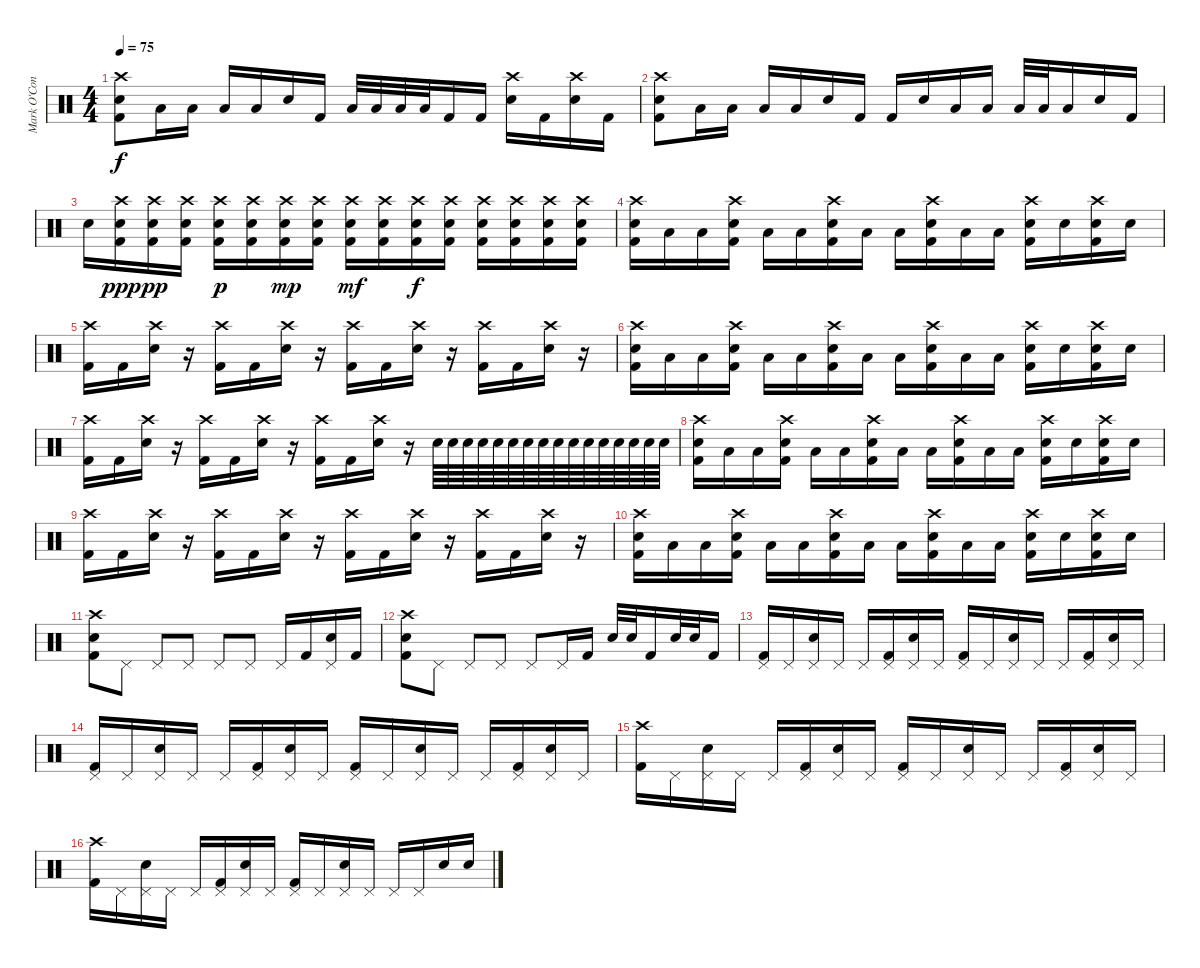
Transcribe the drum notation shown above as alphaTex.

\track ("Mark O'Connell (Drums)" "Mark O'Con") {instrument percussion}
\staff {score}
\articulation defaults
\ts (4 4)
\tempo 75
\clef neutral
\ks c
("Crash high (hit)" "Electric Snare (hit)" "Kick (hit) 2").8{dy f} "Low Tom (hit)".16 "Low Tom (hit)".16 "Low Tom (hit)".16 "Low Tom (hit)".16 "Electric Snare (hit)".16 "Kick (hit) 2".16 "Low Tom (hit)".32 "Low Tom (hit)".32 "Low Tom (hit)".32 "Low Tom (hit)".32 "Kick (hit) 2".16 "Kick (hit) 2".16 ("Crash high (hit)" "Electric Snare (hit)").16 "Kick (hit) 2".16 ("Crash high (hit)" "Electric Snare (hit)").16 "Kick (hit) 2".16 |
("Crash high (hit)" "Electric Snare (hit)" "Kick (hit) 2").8 "Low Tom (hit)".16 "Low Tom (hit)".16 "Low Tom (hit)".16 "Low Tom (hit)".16 "Electric Snare (hit)".16 "Kick (hit) 2".16 "Kick (hit) 2".16 "Electric Snare (hit)".16 "Low Tom (hit)".16 "Low Tom (hit)".16 "Low Tom (hit)".32 "Low Tom (hit)".32 "Low Tom (hit)".16 "Electric Snare (hit)".16 "Kick (hit) 2".16 |
"Electric Snare (hit)".16 ("Crash high (hit)" "Electric Snare (hit)" "Kick (hit) 2").16{dy ppp} ("Crash high (hit)" "Electric Snare (hit)" "Kick (hit) 2").16{dy pp} ("Crash high (hit)" "Electric Snare (hit)" "Kick (hit) 2").16 ("Crash high (hit)" "Electric Snare (hit)" "Kick (hit) 2").16{dy p} ("Crash high (hit)" "Electric Snare (hit)" "Kick (hit) 2").16 ("Crash high (hit)" "Electric Snare (hit)" "Kick (hit) 2").16{dy mp} ("Crash high (hit)" "Electric Snare (hit)" "Kick (hit) 2").16 ("Crash high (hit)" "Electric Snare (hit)" "Kick (hit) 2").16{dy mf} ("Crash high (hit)" "Electric Snare (hit)" "Kick (hit) 2").16 ("Crash high (hit)" "Electric Snare (hit)" "Kick (hit) 2").16{dy f} ("Crash high (hit)" "Electric Snare (hit)" "Kick (hit) 2").16 ("Crash high (hit)" "Electric Snare (hit)" "Kick (hit) 2").16 ("Crash high (hit)" "Electric Snare (hit)" "Kick (hit) 2").16 ("Crash high (hit)" "Electric Snare (hit)" "Kick (hit) 2").16 ("Crash high (hit)" "Electric Snare (hit)" "Kick (hit) 2").16 |
("Crash high (hit)" "Electric Snare (hit)" "Kick (hit) 2").16 "Low Tom (hit)".16 "Low Tom (hit)".16 ("Crash high (hit)" "Electric Snare (hit)" "Kick (hit) 2").16 "Low Tom (hit)".16 "Low Tom (hit)".16 ("Crash high (hit)" "Electric Snare (hit)" "Kick (hit) 2").16 "Low Tom (hit)".16 "Low Tom (hit)".16 ("Crash high (hit)" "Electric Snare (hit)" "Kick (hit) 2").16 "Low Tom (hit)".16 "Low Tom (hit)".16 ("Crash high (hit)" "Electric Snare (hit)" "Kick (hit) 2").16 "Electric Snare (hit)".16 ("Crash high (hit)" "Electric Snare (hit)" "Kick (hit) 2").16 "Electric Snare (hit)".16 |
("Crash high (hit)" "Kick (hit) 2").16 "Kick (hit) 2".16 ("Crash high (hit)" "Electric Snare (hit)").16 r.16 ("Crash high (hit)" "Kick (hit) 2").16 "Kick (hit) 2".16 ("Crash high (hit)" "Electric Snare (hit)").16 r.16 ("Crash high (hit)" "Kick (hit) 2").16 "Kick (hit) 2".16 ("Crash high (hit)" "Electric Snare (hit)").16 r.16 ("Crash high (hit)" "Kick (hit) 2").16 "Kick (hit) 2".16 ("Crash high (hit)" "Electric Snare (hit)").16 r.16 |
("Crash high (hit)" "Electric Snare (hit)" "Kick (hit) 2").16 "Low Tom (hit)".16 "Low Tom (hit)".16 ("Crash high (hit)" "Electric Snare (hit)" "Kick (hit) 2").16 "Low Tom (hit)".16 "Low Tom (hit)".16 ("Crash high (hit)" "Electric Snare (hit)" "Kick (hit) 2").16 "Low Tom (hit)".16 "Low Tom (hit)".16 ("Crash high (hit)" "Electric Snare (hit)" "Kick (hit) 2").16 "Low Tom (hit)".16 "Low Tom (hit)".16 ("Crash high (hit)" "Electric Snare (hit)" "Kick (hit) 2").16 "Electric Snare (hit)".16 ("Crash high (hit)" "Electric Snare (hit)" "Kick (hit) 2").16 "Electric Snare (hit)".16 |
("Crash high (hit)" "Kick (hit) 2").16 "Kick (hit) 2".16 ("Crash high (hit)" "Electric Snare (hit)").16 r.16 ("Crash high (hit)" "Kick (hit) 2").16 "Kick (hit) 2".16 ("Crash high (hit)" "Electric Snare (hit)").16 r.16 ("Crash high (hit)" "Kick (hit) 2").16 "Kick (hit) 2".16 ("Crash high (hit)" "Electric Snare (hit)").16 r.16 "Electric Snare (hit)".64 "Electric Snare (hit)".64 "Electric Snare (hit)".64 "Electric Snare (hit)".64 "Electric Snare (hit)".64 "Electric Snare (hit)".64 "Electric Snare (hit)".64 "Electric Snare (hit)".64 "Electric Snare (hit)".64 "Electric Snare (hit)".64 "Electric Snare (hit)".64 "Electric Snare (hit)".64 "Electric Snare (hit)".64 "Electric Snare (hit)".64 "Electric Snare (hit)".64 "Electric Snare (hit)".64 |
("Crash high (hit)" "Electric Snare (hit)" "Kick (hit) 2").16 "Low Tom (hit)".16 "Low Tom (hit)".16 ("Crash high (hit)" "Electric Snare (hit)" "Kick (hit) 2").16 "Low Tom (hit)".16 "Low Tom (hit)".16 ("Crash high (hit)" "Electric Snare (hit)" "Kick (hit) 2").16 "Low Tom (hit)".16 "Low Tom (hit)".16 ("Crash high (hit)" "Electric Snare (hit)" "Kick (hit) 2").16 "Low Tom (hit)".16 "Low Tom (hit)".16 ("Crash high (hit)" "Electric Snare (hit)" "Kick (hit) 2").16 "Electric Snare (hit)".16 ("Crash high (hit)" "Electric Snare (hit)" "Kick (hit) 2").16 "Electric Snare (hit)".16 |
("Crash high (hit)" "Kick (hit) 2").16 "Kick (hit) 2".16 ("Crash high (hit)" "Electric Snare (hit)").16 r.16 ("Crash high (hit)" "Kick (hit) 2").16 "Kick (hit) 2".16 ("Crash high (hit)" "Electric Snare (hit)").16 r.16 ("Crash high (hit)" "Kick (hit) 2").16 "Kick (hit) 2".16 ("Crash high (hit)" "Electric Snare (hit)").16 r.16 ("Crash high (hit)" "Kick (hit) 2").16 "Kick (hit) 2".16 ("Crash high (hit)" "Electric Snare (hit)").16 r.16 |
("Crash high (hit)" "Electric Snare (hit)" "Kick (hit) 2").16 "Low Tom (hit)".16 "Low Tom (hit)".16 ("Crash high (hit)" "Electric Snare (hit)" "Kick (hit) 2").16 "Low Tom (hit)".16 "Low Tom (hit)".16 ("Crash high (hit)" "Electric Snare (hit)" "Kick (hit) 2").16 "Low Tom (hit)".16 "Low Tom (hit)".16 ("Crash high (hit)" "Electric Snare (hit)" "Kick (hit) 2").16 "Low Tom (hit)".16 "Low Tom (hit)".16 ("Crash high (hit)" "Electric Snare (hit)" "Kick (hit) 2").16 "Electric Snare (hit)".16 ("Crash high (hit)" "Electric Snare (hit)" "Kick (hit) 2").16 "Electric Snare (hit)".16 |
("Crash high (hit)" "Electric Snare (hit)" "Kick (hit) 2").8 "Pedal Hi-Hat (hit)".8 "Pedal Hi-Hat (hit)".8 "Pedal Hi-Hat (hit)".8 "Pedal Hi-Hat (hit)".8 "Pedal Hi-Hat (hit)".8 "Pedal Hi-Hat (hit)".16 "Kick (hit) 2".16 ("Pedal Hi-Hat (hit)" "Electric Snare (hit)").16 "Kick (hit) 2".16 |
("Crash high (hit)" "Electric Snare (hit)" "Kick (hit) 2").8 "Pedal Hi-Hat (hit)".8 "Pedal Hi-Hat (hit)".8 "Pedal Hi-Hat (hit)".8 "Pedal Hi-Hat (hit)".8 "Pedal Hi-Hat (hit)".16 "Kick (hit) 2".16 "Electric Snare (hit)".32 "Electric Snare (hit)".32 "Kick (hit) 2".16 "Electric Snare (hit)".32 "Electric Snare (hit)".32 "Kick (hit) 2".16 |
("Pedal Hi-Hat (hit)" "Kick (hit) 2").16 "Pedal Hi-Hat (hit)".16 ("Pedal Hi-Hat (hit)" "Electric Snare (hit)").16 "Pedal Hi-Hat (hit)".16 "Pedal Hi-Hat (hit)".16 ("Pedal Hi-Hat (hit)" "Kick (hit) 2").16 ("Pedal Hi-Hat (hit)" "Electric Snare (hit)").16 "Pedal Hi-Hat (hit)".16 ("Pedal Hi-Hat (hit)" "Kick (hit) 2").16 "Pedal Hi-Hat (hit)".16 ("Pedal Hi-Hat (hit)" "Electric Snare (hit)").16 "Pedal Hi-Hat (hit)".16 "Pedal Hi-Hat (hit)".16 ("Pedal Hi-Hat (hit)" "Kick (hit) 2").16 ("Pedal Hi-Hat (hit)" "Electric Snare (hit)").16 "Pedal Hi-Hat (hit)".16 |
("Pedal Hi-Hat (hit)" "Kick (hit) 2").16 "Pedal Hi-Hat (hit)".16 ("Pedal Hi-Hat (hit)" "Electric Snare (hit)").16 "Pedal Hi-Hat (hit)".16 "Pedal Hi-Hat (hit)".16 ("Pedal Hi-Hat (hit)" "Kick (hit) 2").16 ("Pedal Hi-Hat (hit)" "Electric Snare (hit)").16 "Pedal Hi-Hat (hit)".16 ("Pedal Hi-Hat (hit)" "Kick (hit) 2").16 "Pedal Hi-Hat (hit)".16 ("Pedal Hi-Hat (hit)" "Electric Snare (hit)").16 "Pedal Hi-Hat (hit)".16 "Pedal Hi-Hat (hit)".16 ("Pedal Hi-Hat (hit)" "Kick (hit) 2").16 ("Pedal Hi-Hat (hit)" "Electric Snare (hit)").16 "Pedal Hi-Hat (hit)".16 |
("Crash high (hit)" "Kick (hit) 2").16 "Pedal Hi-Hat (hit)".16 ("Pedal Hi-Hat (hit)" "Electric Snare (hit)").16 "Pedal Hi-Hat (hit)".16 "Pedal Hi-Hat (hit)".16 ("Pedal Hi-Hat (hit)" "Kick (hit) 2").16 ("Pedal Hi-Hat (hit)" "Electric Snare (hit)").16 "Pedal Hi-Hat (hit)".16 ("Pedal Hi-Hat (hit)" "Kick (hit) 2").16 "Pedal Hi-Hat (hit)".16 ("Pedal Hi-Hat (hit)" "Electric Snare (hit)").16 "Pedal Hi-Hat (hit)".16 "Pedal Hi-Hat (hit)".16 ("Pedal Hi-Hat (hit)" "Kick (hit) 2").16 ("Pedal Hi-Hat (hit)" "Electric Snare (hit)").16 "Pedal Hi-Hat (hit)".16 |
("Crash high (hit)" "Kick (hit) 2").16 "Pedal Hi-Hat (hit)".16 ("Pedal Hi-Hat (hit)" "Electric Snare (hit)").16 "Pedal Hi-Hat (hit)".16 "Pedal Hi-Hat (hit)".16 ("Pedal Hi-Hat (hit)" "Kick (hit) 2").16 ("Pedal Hi-Hat (hit)" "Electric Snare (hit)").16 "Pedal Hi-Hat (hit)".16 ("Pedal Hi-Hat (hit)" "Kick (hit) 2").16 "Pedal Hi-Hat (hit)".16 ("Pedal Hi-Hat (hit)" "Electric Snare (hit)").16 "Pedal Hi-Hat (hit)".16 "Pedal Hi-Hat (hit)".16 "Pedal Hi-Hat (hit)".16 "Electric Snare (hit)".16 "Electric Snare (hit)".16
